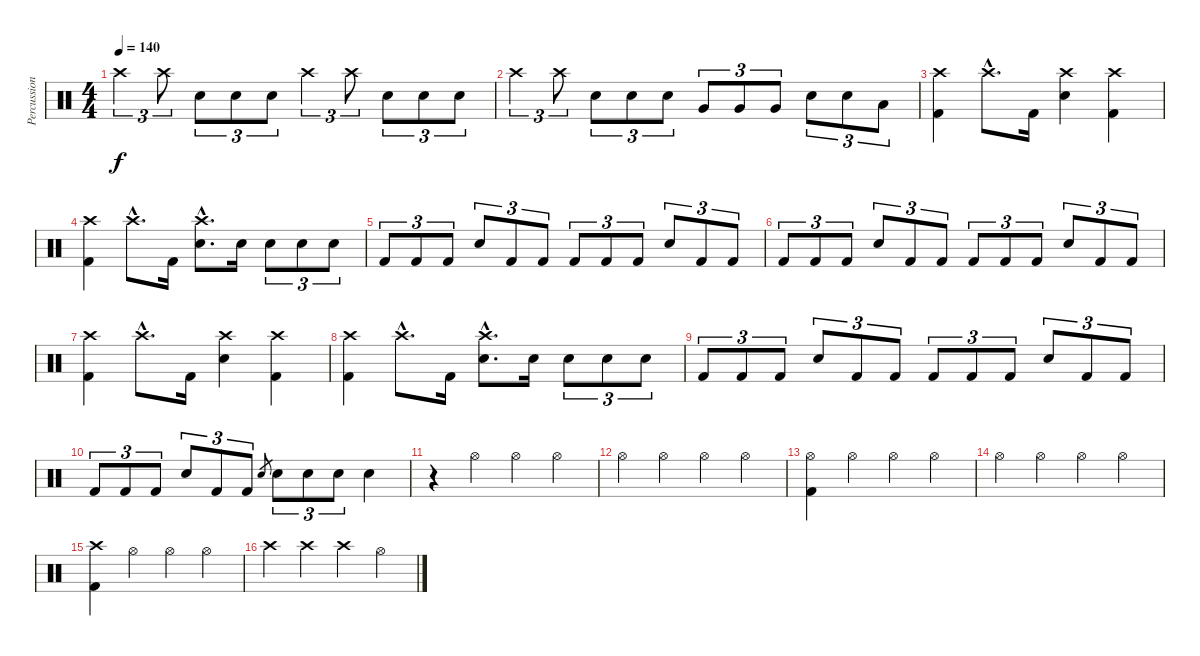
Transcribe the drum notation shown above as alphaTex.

\track ("Percussion" "Percussion") {instrument percussion}
\staff {score}
\articulation defaults
\ts (4 4)
\tempo 140
\clef neutral
\ks c "Crash high (hit)".4{tu (3 2) dy f} "Crash high (hit)".8{tu (3 2)} "Electric Snare (hit)".8{tu (3 2)} "Electric Snare (hit)".8{tu (3 2)} "Electric Snare (hit)".8{tu (3 2)} "Crash high (hit)".4{tu (3 2)} "Crash high (hit)".8{tu (3 2)} "Electric Snare (hit)".8{tu (3 2)} "Electric Snare (hit)".8{tu (3 2)} "Electric Snare (hit)".8{tu (3 2)}
|
"Crash high (hit)".4{tu (3 2)} "Crash high (hit)".8{tu (3 2)} "Electric Snare (hit)".8{tu (3 2)} "Electric Snare (hit)".8{tu (3 2)} "Electric Snare (hit)".8{tu (3 2)} "Very Low Tom (hit)".8{tu (3 2)} "Very Low Tom (hit)".8{tu (3 2)} "Very Low Tom (hit)".8{tu (3 2)} "Electric Snare (hit)".8{tu (3 2)} "Electric Snare (hit)".8{tu (3 2)} "Low Tom (hit)".8{tu (3 2)} |
("Crash high (hit)" "Kick (hit) 2").4 "Crash high (hit)"{hac}.8{d} "Kick (hit) 2".16 ("Crash high (hit)" "Electric Snare (hit)").4 ("Crash high (hit)" "Kick (hit) 2").4 |
("Crash high (hit)" "Kick (hit) 2").4 "Crash high (hit)"{hac}.8{d} "Kick (hit) 2".16 ("Crash high (hit)"{hac} "Electric Snare (hit)"{hac}).8{d} "Electric Snare (hit)".16 "Electric Snare (hit)".8{tu (3 2)} "Electric Snare (hit)".8{tu (3 2)} "Electric Snare (hit)".8{tu (3 2)} |
"Kick (hit) 2".8{tu (3 2)} "Kick (hit) 2".8{tu (3 2)} "Kick (hit) 2".8{tu (3 2)} "Electric Snare (hit)".8{tu (3 2)} "Kick (hit) 2".8{tu (3 2)} "Kick (hit) 2".8{tu (3 2)} "Kick (hit) 2".8{tu (3 2)} "Kick (hit) 2".8{tu (3 2)} "Kick (hit) 2".8{tu (3 2)} "Electric Snare (hit)".8{tu (3 2)} "Kick (hit) 2".8{tu (3 2)} "Kick (hit) 2".8{tu (3 2)} |
"Kick (hit) 2".8{tu (3 2)} "Kick (hit) 2".8{tu (3 2)} "Kick (hit) 2".8{tu (3 2)} "Electric Snare (hit)".8{tu (3 2)} "Kick (hit) 2".8{tu (3 2)} "Kick (hit) 2".8{tu (3 2)} "Kick (hit) 2".8{tu (3 2)} "Kick (hit) 2".8{tu (3 2)} "Kick (hit) 2".8{tu (3 2)} "Electric Snare (hit)".8{tu (3 2)} "Kick (hit) 2".8{tu (3 2)} "Kick (hit) 2".8{tu (3 2)} |
("Crash high (hit)" "Kick (hit) 2").4 "Crash high (hit)"{hac}.8{d} "Kick (hit) 2".16 ("Crash high (hit)" "Electric Snare (hit)").4 ("Crash high (hit)" "Kick (hit) 2").4 |
("Crash high (hit)" "Kick (hit) 2").4 "Crash high (hit)"{hac}.8{d} "Kick (hit) 2".16 ("Crash high (hit)"{hac} "Electric Snare (hit)"{hac}).8{d} "Electric Snare (hit)".16 "Electric Snare (hit)".8{tu (3 2)} "Electric Snare (hit)".8{tu (3 2)} "Electric Snare (hit)".8{tu (3 2)} |
"Kick (hit) 2".8{tu (3 2)} "Kick (hit) 2".8{tu (3 2)} "Kick (hit) 2".8{tu (3 2)} "Electric Snare (hit)".8{tu (3 2)} "Kick (hit) 2".8{tu (3 2)} "Kick (hit) 2".8{tu (3 2)} "Kick (hit) 2".8{tu (3 2)} "Kick (hit) 2".8{tu (3 2)} "Kick (hit) 2".8{tu (3 2)} "Electric Snare (hit)".8{tu (3 2)} "Kick (hit) 2".8{tu (3 2)} "Kick (hit) 2".8{tu (3 2)} |
"Kick (hit) 2".8{tu (3 2)} "Kick (hit) 2".8{tu (3 2)} "Kick (hit) 2".8{tu (3 2)} "Electric Snare (hit)".8{tu (3 2)} "Kick (hit) 2".8{tu (3 2)} "Kick (hit) 2".8{tu (3 2)} "Electric Snare (hit)".8{gr} "Electric Snare (hit)".8{tu (3 2)} "Electric Snare (hit)".8{tu (3 2)} "Electric Snare (hit)".8{tu (3 2)} "Electric Snare (hit)".4 |
r.4 "Hi-Hat (open)".4 "Hi-Hat (open)".4 "Hi-Hat (open)".4 |
"Hi-Hat (open)".4 "Hi-Hat (open)".4 "Hi-Hat (open)".4 "Hi-Hat (open)".4 |
("Hi-Hat (open)" "Kick (hit) 2").4 "Hi-Hat (open)".4 "Hi-Hat (open)".4 "Hi-Hat (open)".4 |
"Hi-Hat (open)".4 "Hi-Hat (open)".4 "Hi-Hat (open)".4 "Hi-Hat (open)".4 |
("Crash high (hit)" "Kick (hit) 2").4 "Hi-Hat (open)".4 "Hi-Hat (open)".4 "Hi-Hat (open)".4 |
"Crash high (hit)".4 "Crash high (hit)".4 "Crash high (hit)".4 "Hi-Hat (open)".4
